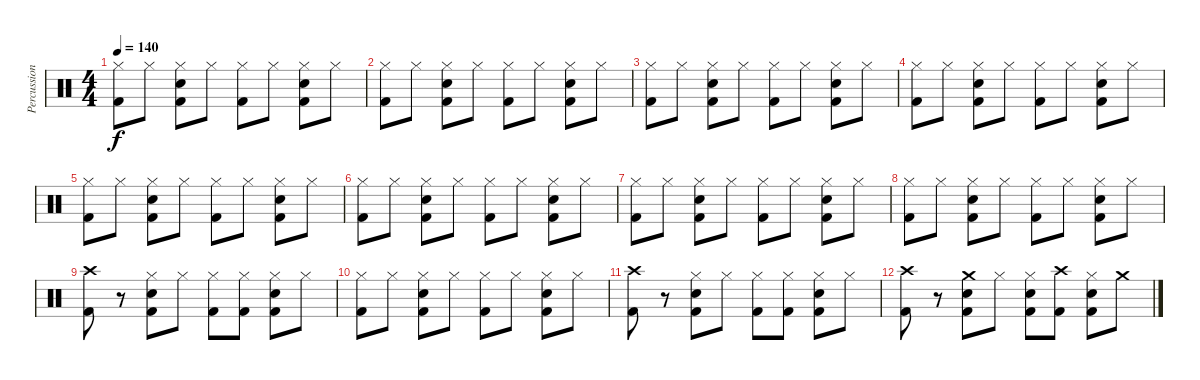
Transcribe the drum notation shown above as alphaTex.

\track ("Percussions" "Percussion") {instrument percussion}
\staff {score}
\articulation defaults
\ts (4 4)
\tempo 140
\clef neutral
\ks c
("Hi-Hat (closed)" "Kick (hit) 2").8{dy f} "Hi-Hat (closed)".8 ("Hi-Hat (closed)" "Snare (hit) 2" "Kick (hit) 2").8 "Hi-Hat (closed)".8 ("Hi-Hat (closed)" "Kick (hit) 2").8 "Hi-Hat (closed)".8 ("Hi-Hat (closed)" "Snare (hit) 2" "Kick (hit) 2").8 "Hi-Hat (closed)".8 |
("Hi-Hat (closed)" "Kick (hit) 2").8 "Hi-Hat (closed)".8 ("Hi-Hat (closed)" "Snare (hit) 2" "Kick (hit) 2").8 "Hi-Hat (closed)".8 ("Hi-Hat (closed)" "Kick (hit) 2").8 "Hi-Hat (closed)".8 ("Hi-Hat (closed)" "Snare (hit) 2" "Kick (hit) 2").8 "Hi-Hat (closed)".8 |
("Hi-Hat (closed)" "Kick (hit) 2").8 "Hi-Hat (closed)".8 ("Hi-Hat (closed)" "Snare (hit) 2" "Kick (hit) 2").8 "Hi-Hat (closed)".8 ("Hi-Hat (closed)" "Kick (hit) 2").8 "Hi-Hat (closed)".8 ("Hi-Hat (closed)" "Snare (hit) 2" "Kick (hit) 2").8 "Hi-Hat (closed)".8 |
("Hi-Hat (closed)" "Kick (hit) 2").8 "Hi-Hat (closed)".8 ("Hi-Hat (closed)" "Snare (hit) 2" "Kick (hit) 2").8 "Hi-Hat (closed)".8 ("Hi-Hat (closed)" "Kick (hit) 2").8 "Hi-Hat (closed)".8 ("Hi-Hat (closed)" "Snare (hit) 2" "Kick (hit) 2").8 "Hi-Hat (closed)".8 |
("Hi-Hat (closed)" "Kick (hit) 2").8 "Hi-Hat (closed)".8 ("Hi-Hat (closed)" "Snare (hit) 2" "Kick (hit) 2").8 "Hi-Hat (closed)".8 ("Hi-Hat (closed)" "Kick (hit) 2").8 "Hi-Hat (closed)".8 ("Hi-Hat (closed)" "Snare (hit) 2" "Kick (hit) 2").8 "Hi-Hat (closed)".8 |
("Hi-Hat (closed)" "Kick (hit) 2").8 "Hi-Hat (closed)".8 ("Hi-Hat (closed)" "Snare (hit) 2" "Kick (hit) 2").8 "Hi-Hat (closed)".8 ("Hi-Hat (closed)" "Kick (hit) 2").8 "Hi-Hat (closed)".8 ("Hi-Hat (closed)" "Snare (hit) 2" "Kick (hit) 2").8 "Hi-Hat (closed)".8 |
("Hi-Hat (closed)" "Kick (hit) 2").8 "Hi-Hat (closed)".8 ("Hi-Hat (closed)" "Snare (hit) 2" "Kick (hit) 2").8 "Hi-Hat (closed)".8 ("Hi-Hat (closed)" "Kick (hit) 2").8 "Hi-Hat (closed)".8 ("Hi-Hat (closed)" "Snare (hit) 2" "Kick (hit) 2").8 "Hi-Hat (closed)".8 |
("Hi-Hat (closed)" "Kick (hit) 2").8 "Hi-Hat (closed)".8 ("Hi-Hat (closed)" "Snare (hit) 2" "Kick (hit) 2").8 "Hi-Hat (closed)".8 ("Hi-Hat (closed)" "Kick (hit) 2").8 "Hi-Hat (closed)".8 ("Hi-Hat (closed)" "Snare (hit) 2" "Kick (hit) 2").8 "Hi-Hat (closed)".8 |
("Crash high (hit)" "Kick (hit) 2").8 r.8 ("Hi-Hat (closed)" "Snare (hit) 2" "Kick (hit) 2").8 "Hi-Hat (closed)".8 ("Hi-Hat (closed)" "Kick (hit) 2").8 ("Hi-Hat (closed)" "Kick (hit) 2").8 ("Hi-Hat (closed)" "Snare (hit) 2" "Kick (hit) 2").8 "Hi-Hat (closed)".8 |
("Hi-Hat (closed)" "Kick (hit) 2").8 "Hi-Hat (closed)".8 ("Hi-Hat (closed)" "Snare (hit) 2" "Kick (hit) 2").8 "Hi-Hat (closed)".8 ("Hi-Hat (closed)" "Kick (hit) 2").8 "Hi-Hat (closed)".8 ("Hi-Hat (closed)" "Snare (hit) 2" "Kick (hit) 2").8 "Hi-Hat (closed)".8 |
("Crash high (hit)" "Kick (hit) 2").8 r.8 ("Hi-Hat (closed)" "Snare (hit) 2" "Kick (hit) 2").8 "Hi-Hat (closed)".8 ("Hi-Hat (closed)" "Kick (hit) 2").8 ("Hi-Hat (closed)" "Kick (hit) 2").8 ("Hi-Hat (closed)" "Snare (hit) 2" "Kick (hit) 2").8 "Hi-Hat (closed)".8 |
("Crash high (hit)" "Kick (hit) 2").8 r.8 ("Crash medium (hit)" "Snare (hit) 2" "Kick (hit) 2").8 "Hi-Hat (closed)".8 ("Hi-Hat (closed)" "Snare (hit) 2" "Kick (hit) 2").8 ("Crash high (hit)" "Kick (hit) 2").8 ("Hi-Hat (closed)" "Snare (hit) 2" "Kick (hit) 2").8 "Crash medium (hit)".8
